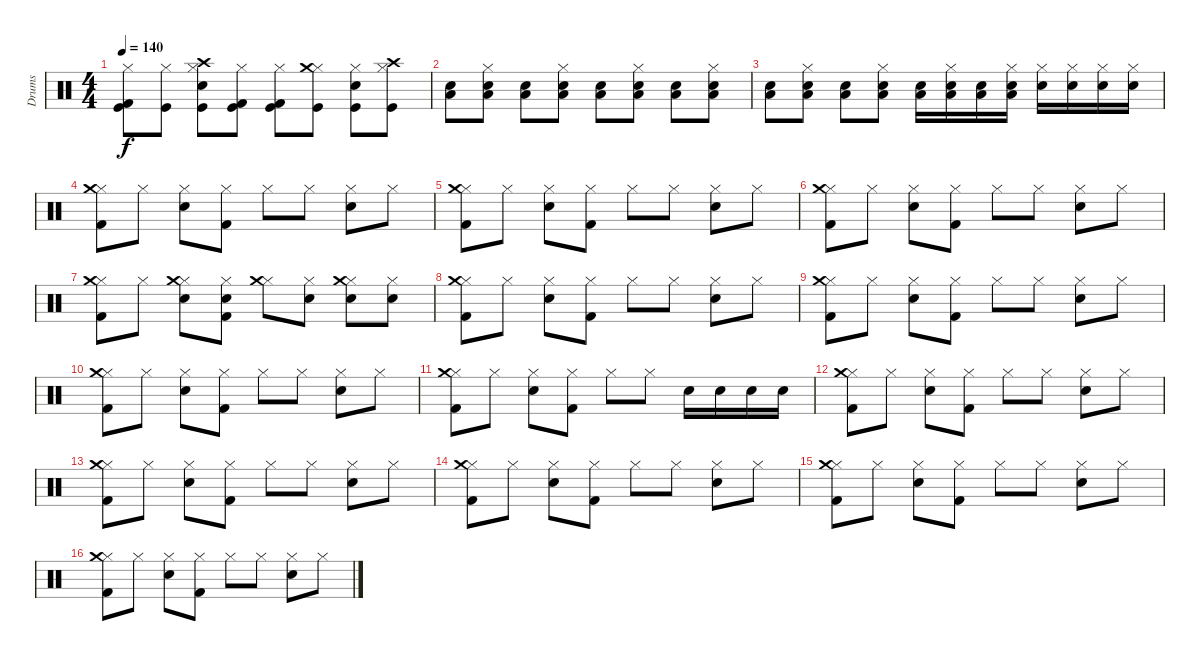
\track ("Drums" "Drums") {instrument percussion}
\staff {score}
\articulation defaults
\ts (4 4)
\tempo 140
\clef neutral
\ks c
("Hi-Hat (closed)" "Kick (hit)" "Kick (hit) 2").8{dy f} ("Hi-Hat (closed)" "Kick (hit)").8 ("Hi-Hat (closed)" "Kick (hit)" "Electric Snare (hit)" "Crash high (hit)").8 ("Hi-Hat (closed)" "Kick (hit)" "Kick (hit) 2").8 ("Hi-Hat (closed)" "Kick (hit)" "Kick (hit) 2").8 ("Hi-Hat (closed)" "Kick (hit)" "Crash medium (hit)").8 ("Hi-Hat (closed)" "Kick (hit)" "Snare (hit) 2").8 ("Hi-Hat (closed)" "Kick (hit)" "Crash high (hit)").8 |
("Low Floor Tom (hit)" "Snare (hit) 2").8 ("Low Floor Tom (hit)" "Hi-Hat (closed)" "Snare (hit) 2").8 ("Low Floor Tom (hit)" "Snare (hit) 2").8 ("Low Floor Tom (hit)" "Hi-Hat (closed)" "Snare (hit) 2").8 ("Low Floor Tom (hit)" "Snare (hit) 2").8 ("Low Floor Tom (hit)" "Hi-Hat (closed)" "Snare (hit) 2").8 ("Low Floor Tom (hit)" "Snare (hit) 2").8 ("Low Floor Tom (hit)" "Hi-Hat (closed)" "Snare (hit) 2").8 |
("Low Floor Tom (hit)" "Snare (hit) 2").8 ("Low Floor Tom (hit)" "Hi-Hat (closed)" "Snare (hit) 2").8 ("Low Floor Tom (hit)" "Snare (hit) 2").8 ("Low Floor Tom (hit)" "Hi-Hat (closed)" "Snare (hit) 2").8 ("Low Floor Tom (hit)" "Electric Snare (hit)").16 ("Low Floor Tom (hit)" "Hi-Hat (closed)" "Snare (hit) 2").16 ("Low Floor Tom (hit)" "Electric Snare (hit)").16 ("Low Floor Tom (hit)" "Hi-Hat (closed)" "Snare (hit) 2").16 ("Hi-Hat (closed)" "Electric Snare (hit)").16 ("Hi-Hat (closed)" "Snare (hit) 2").16 ("Hi-Hat (closed)" "Electric Snare (hit)").16 ("Hi-Hat (closed)" "Snare (hit) 2").16 |
("Hi-Hat (closed)" "Kick (hit) 2" "Crash medium (hit)").8 "Hi-Hat (closed)".8 ("Hi-Hat (closed)" "Electric Snare (hit)").8 ("Hi-Hat (closed)" "Kick (hit) 2").8 "Hi-Hat (closed)".8 "Hi-Hat (closed)".8 ("Hi-Hat (closed)" "Electric Snare (hit)").8 "Hi-Hat (closed)".8 |
("Hi-Hat (closed)" "Kick (hit) 2" "Crash medium (hit)").8 "Hi-Hat (closed)".8 ("Hi-Hat (closed)" "Electric Snare (hit)").8 ("Hi-Hat (closed)" "Kick (hit) 2").8 "Hi-Hat (closed)".8 "Hi-Hat (closed)".8 ("Hi-Hat (closed)" "Electric Snare (hit)").8 "Hi-Hat (closed)".8 |
("Hi-Hat (closed)" "Kick (hit) 2" "Crash medium (hit)").8 "Hi-Hat (closed)".8 ("Hi-Hat (closed)" "Electric Snare (hit)").8 ("Hi-Hat (closed)" "Kick (hit) 2").8 "Hi-Hat (closed)".8 "Hi-Hat (closed)".8 ("Hi-Hat (closed)" "Electric Snare (hit)").8 "Hi-Hat (closed)".8 |
("Hi-Hat (closed)" "Kick (hit) 2" "Crash medium (hit)").8 "Hi-Hat (closed)".8 ("Hi-Hat (closed)" "Electric Snare (hit)" "Crash medium (hit)").8 ("Hi-Hat (closed)" "Kick (hit) 2" "Snare (hit) 2").8 ("Hi-Hat (closed)" "Crash medium (hit)").8 ("Hi-Hat (closed)" "Snare (hit) 2").8 ("Hi-Hat (closed)" "Electric Snare (hit)" "Crash medium (hit)").8 ("Hi-Hat (closed)" "Snare (hit) 2").8 |
("Hi-Hat (closed)" "Kick (hit) 2" "Crash medium (hit)").8 "Hi-Hat (closed)".8 ("Hi-Hat (closed)" "Electric Snare (hit)").8 ("Hi-Hat (closed)" "Kick (hit) 2").8 "Hi-Hat (closed)".8 "Hi-Hat (closed)".8 ("Hi-Hat (closed)" "Electric Snare (hit)").8 "Hi-Hat (closed)".8 |
("Hi-Hat (closed)" "Kick (hit) 2" "Crash medium (hit)").8 "Hi-Hat (closed)".8 ("Hi-Hat (closed)" "Electric Snare (hit)").8 ("Hi-Hat (closed)" "Kick (hit) 2").8 "Hi-Hat (closed)".8 "Hi-Hat (closed)".8 ("Hi-Hat (closed)" "Electric Snare (hit)").8 "Hi-Hat (closed)".8 |
("Hi-Hat (closed)" "Kick (hit) 2" "Crash medium (hit)").8 "Hi-Hat (closed)".8 ("Hi-Hat (closed)" "Electric Snare (hit)").8 ("Hi-Hat (closed)" "Kick (hit) 2").8 "Hi-Hat (closed)".8 "Hi-Hat (closed)".8 ("Hi-Hat (closed)" "Electric Snare (hit)").8 "Hi-Hat (closed)".8 |
("Hi-Hat (closed)" "Kick (hit) 2" "Crash medium (hit)").8 "Hi-Hat (closed)".8 ("Hi-Hat (closed)" "Electric Snare (hit)").8 ("Hi-Hat (closed)" "Kick (hit) 2").8 "Hi-Hat (closed)".8 "Hi-Hat (closed)".8 "Snare (hit) 2".16 "Electric Snare (hit)".16 "Snare (hit) 2".16 "Electric Snare (hit)".16 |
("Hi-Hat (closed)" "Kick (hit) 2" "Crash medium (hit)").8 "Hi-Hat (closed)".8 ("Hi-Hat (closed)" "Electric Snare (hit)").8 ("Hi-Hat (closed)" "Kick (hit) 2").8 "Hi-Hat (closed)".8 "Hi-Hat (closed)".8 ("Hi-Hat (closed)" "Electric Snare (hit)").8 "Hi-Hat (closed)".8 |
("Hi-Hat (closed)" "Kick (hit) 2" "Crash medium (hit)").8 "Hi-Hat (closed)".8 ("Hi-Hat (closed)" "Electric Snare (hit)").8 ("Hi-Hat (closed)" "Kick (hit) 2").8 "Hi-Hat (closed)".8 "Hi-Hat (closed)".8 ("Hi-Hat (closed)" "Electric Snare (hit)").8 "Hi-Hat (closed)".8 |
("Hi-Hat (closed)" "Kick (hit) 2" "Crash medium (hit)").8 "Hi-Hat (closed)".8 ("Hi-Hat (closed)" "Electric Snare (hit)").8 ("Hi-Hat (closed)" "Kick (hit) 2").8 "Hi-Hat (closed)".8 "Hi-Hat (closed)".8 ("Hi-Hat (closed)" "Electric Snare (hit)").8 "Hi-Hat (closed)".8 |
("Hi-Hat (closed)" "Kick (hit) 2" "Crash medium (hit)").8 "Hi-Hat (closed)".8 ("Hi-Hat (closed)" "Electric Snare (hit)").8 ("Hi-Hat (closed)" "Kick (hit) 2").8 "Hi-Hat (closed)".8 "Hi-Hat (closed)".8 ("Hi-Hat (closed)" "Electric Snare (hit)").8 "Hi-Hat (closed)".8 |
("Hi-Hat (closed)" "Kick (hit) 2" "Crash medium (hit)").8 "Hi-Hat (closed)".8 ("Hi-Hat (closed)" "Electric Snare (hit)").8 ("Hi-Hat (closed)" "Kick (hit) 2").8 "Hi-Hat (closed)".8 "Hi-Hat (closed)".8 ("Hi-Hat (closed)" "Electric Snare (hit)").8 "Hi-Hat (closed)".8
